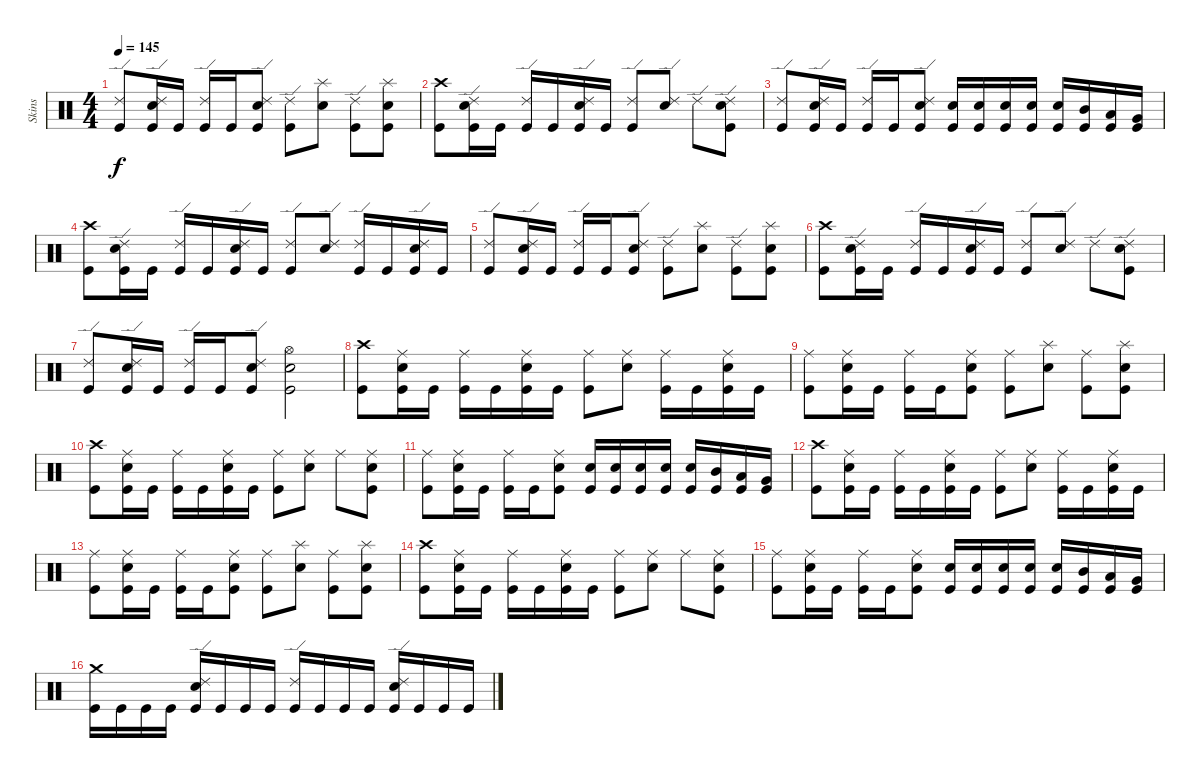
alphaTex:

\track ("Skins" "Skins") {instrument percussion}
\staff {score}
\articulation defaults
\ts (4 4)
\tempo 145
\clef neutral
\ks c
("Ride (edge) 2" "Kick (hit)").8{dy f} ("Ride (edge) 2" "Snare (hit) 2" "Kick (hit)").16 "Kick (hit)".16 ("Ride (edge) 2" "Kick (hit)").16 "Kick (hit)".16 ("Ride (edge) 2" "Snare (hit) 2" "Kick (hit)").8 ("Ride (edge) 2" "Kick (hit)").8 ("Splash (hit)" "Snare (hit) 2").8 ("Ride (edge) 2" "Kick (hit)").8 ("Splash (hit)" "Snare (hit) 2" "Kick (hit)").8 |
("Crash high (hit)" "Kick (hit)").8 ("Ride (edge) 2" "Snare (hit) 2" "Kick (hit)").16 "Kick (hit)".16 ("Ride (edge) 2" "Kick (hit)").16 "Kick (hit)".16 ("Ride (edge) 2" "Snare (hit) 2" "Kick (hit)").16 "Kick (hit)".16 ("Ride (edge) 2" "Kick (hit)").8 ("Ride (edge) 2" "Snare (hit) 2").8 "Ride (edge) 2".8 ("Ride (edge) 2" "Snare (hit) 2" "Kick (hit)").8 |
("Ride (edge) 2" "Kick (hit)").8 ("Ride (edge) 2" "Snare (hit) 2" "Kick (hit)").16 "Kick (hit)".16 ("Ride (edge) 2" "Kick (hit)").16 "Kick (hit)".16 ("Ride (edge) 2" "Snare (hit) 2" "Kick (hit)").8 ("Electric Snare (hit)" "Kick (hit)").16 ("Electric Snare (hit)" "Kick (hit)").16 ("Electric Snare (hit)" "Kick (hit)").16 ("Snare (hit) 2" "Kick (hit)").16 ("Snare (hit) 2" "Kick (hit)").16 ("Mid Tom (hit)" "Kick (hit)").16 ("Low Tom (hit)" "Kick (hit)").16 ("Very Low Tom (hit)" "Kick (hit)").16 |
("Crash high (hit)" "Kick (hit)").8 ("Ride (edge) 2" "Snare (hit) 2" "Kick (hit)").16 "Kick (hit)".16 ("Ride (edge) 2" "Kick (hit)").16 "Kick (hit)".16 ("Ride (edge) 2" "Snare (hit) 2" "Kick (hit)").16 "Kick (hit)".16 ("Ride (edge) 2" "Kick (hit)").8 ("Ride (edge) 2" "Snare (hit) 2").8 ("Ride (edge) 2" "Kick (hit)").16 "Kick (hit)".16 ("Ride (edge) 2" "Snare (hit) 2" "Kick (hit)").16 "Kick (hit)".16 |
("Ride (edge) 2" "Kick (hit)").8 ("Ride (edge) 2" "Snare (hit) 2" "Kick (hit)").16 "Kick (hit)".16 ("Ride (edge) 2" "Kick (hit)").16 "Kick (hit)".16 ("Ride (edge) 2" "Snare (hit) 2" "Kick (hit)").8 ("Ride (edge) 2" "Kick (hit)").8 ("Splash (hit)" "Snare (hit) 2").8 ("Ride (edge) 2" "Kick (hit)").8 ("Splash (hit)" "Snare (hit) 2" "Kick (hit)").8 |
("Crash high (hit)" "Kick (hit)").8 ("Ride (edge) 2" "Snare (hit) 2" "Kick (hit)").16 "Kick (hit)".16 ("Ride (edge) 2" "Kick (hit)").16 "Kick (hit)".16 ("Ride (edge) 2" "Snare (hit) 2" "Kick (hit)").16 "Kick (hit)".16 ("Ride (edge) 2" "Kick (hit)").8 ("Ride (edge) 2" "Snare (hit) 2").8 "Ride (edge) 2".8 ("Ride (edge) 2" "Snare (hit) 2" "Kick (hit)").8 |
("Ride (edge) 2" "Kick (hit)").8 ("Ride (edge) 2" "Snare (hit) 2" "Kick (hit)").16 "Kick (hit)".16 ("Ride (edge) 2" "Kick (hit)").16 "Kick (hit)".16 ("Ride (edge) 2" "Snare (hit) 2" "Kick (hit)").8 ("Hi-Hat (open)" "Electric Snare (hit)" "Kick (hit)").2 |
("Crash high (hit)" "Kick (hit)").8 ("Ride (middle)" "Electric Snare (hit)" "Kick (hit)").16 "Kick (hit)".16 ("Ride (middle)" "Kick (hit)").16 "Kick (hit)".16 ("Ride (middle)" "Electric Snare (hit)" "Kick (hit)").16 "Kick (hit)".16 ("Ride (middle)" "Kick (hit)").8 ("Ride (middle)" "Electric Snare (hit)").8 ("Ride (middle)" "Kick (hit)").16 "Kick (hit)".16 ("Ride (middle)" "Electric Snare (hit)" "Kick (hit)").16 "Kick (hit)".16 |
("Ride (middle)" "Kick (hit)").8 ("Ride (middle)" "Electric Snare (hit)" "Kick (hit)").16 "Kick (hit)".16 ("Ride (middle)" "Kick (hit)").16 "Kick (hit)".16 ("Ride (middle)" "Electric Snare (hit)" "Kick (hit)").8 ("Ride (middle)" "Kick (hit)").8 ("Splash (hit)" "Electric Snare (hit)").8 ("Ride (middle)" "Kick (hit)").8 ("Splash (hit)" "Electric Snare (hit)" "Kick (hit)").8 |
("Crash high (hit)" "Kick (hit)").8 ("Ride (middle)" "Electric Snare (hit)" "Kick (hit)").16 "Kick (hit)".16 ("Ride (middle)" "Kick (hit)").16 "Kick (hit)".16 ("Ride (middle)" "Electric Snare (hit)" "Kick (hit)").16 "Kick (hit)".16 ("Ride (middle)" "Kick (hit)").8 ("Ride (middle)" "Electric Snare (hit)").8 "Ride (middle)".8 ("Ride (middle)" "Electric Snare (hit)" "Kick (hit)").8 |
("Ride (middle)" "Kick (hit)").8 ("Ride (middle)" "Electric Snare (hit)" "Kick (hit)").16 "Kick (hit)".16 ("Ride (middle)" "Kick (hit)").16 "Kick (hit)".16 ("Ride (middle)" "Electric Snare (hit)" "Kick (hit)").8 ("Electric Snare (hit)" "Kick (hit)").16 ("Electric Snare (hit)" "Kick (hit)").16 ("Electric Snare (hit)" "Kick (hit)").16 ("Snare (hit) 2" "Kick (hit)").16 ("Snare (hit) 2" "Kick (hit)").16 ("Mid Tom (hit)" "Kick (hit)").16 ("Low Tom (hit)" "Kick (hit)").16 ("Very Low Tom (hit)" "Kick (hit)").16 |
("Crash high (hit)" "Kick (hit)").8 ("Ride (middle)" "Electric Snare (hit)" "Kick (hit)").16 "Kick (hit)".16 ("Ride (middle)" "Kick (hit)").16 "Kick (hit)".16 ("Ride (middle)" "Electric Snare (hit)" "Kick (hit)").16 "Kick (hit)".16 ("Ride (middle)" "Kick (hit)").8 ("Ride (middle)" "Electric Snare (hit)").8 ("Ride (middle)" "Kick (hit)").16 "Kick (hit)".16 ("Ride (middle)" "Electric Snare (hit)" "Kick (hit)").16 "Kick (hit)".16 |
("Ride (middle)" "Kick (hit)").8 ("Ride (middle)" "Electric Snare (hit)" "Kick (hit)").16 "Kick (hit)".16 ("Ride (middle)" "Kick (hit)").16 "Kick (hit)".16 ("Ride (middle)" "Electric Snare (hit)" "Kick (hit)").8 ("Ride (middle)" "Kick (hit)").8 ("Splash (hit)" "Electric Snare (hit)").8 ("Ride (middle)" "Kick (hit)").8 ("Splash (hit)" "Electric Snare (hit)" "Kick (hit)").8 |
("Crash high (hit)" "Kick (hit)").8 ("Ride (middle)" "Electric Snare (hit)" "Kick (hit)").16 "Kick (hit)".16 ("Ride (middle)" "Kick (hit)").16 "Kick (hit)".16 ("Ride (middle)" "Electric Snare (hit)" "Kick (hit)").16 "Kick (hit)".16 ("Ride (middle)" "Kick (hit)").8 ("Ride (middle)" "Electric Snare (hit)").8 "Ride (middle)".8 ("Ride (middle)" "Electric Snare (hit)" "Kick (hit)").8 |
("Ride (middle)" "Kick (hit)").8 ("Ride (middle)" "Electric Snare (hit)" "Kick (hit)").16 "Kick (hit)".16 ("Ride (middle)" "Kick (hit)").16 "Kick (hit)".16 ("Ride (middle)" "Electric Snare (hit)" "Kick (hit)").8 ("Electric Snare (hit)" "Kick (hit)").16 ("Electric Snare (hit)" "Kick (hit)").16 ("Electric Snare (hit)" "Kick (hit)").16 ("Snare (hit) 2" "Kick (hit)").16 ("Snare (hit) 2" "Kick (hit)").16 ("Mid Tom (hit)" "Kick (hit)").16 ("Low Tom (hit)" "Kick (hit)").16 ("Very Low Tom (hit)" "Kick (hit)").16 |
("Crash medium (hit)" "Kick (hit)").16 "Kick (hit)".16 "Kick (hit)".16 "Kick (hit)".16 ("Ride (edge) 2" "Snare (hit) 2" "Kick (hit)").16 "Kick (hit)".16 "Kick (hit)".16 "Kick (hit)".16 ("Ride (edge) 2" "Kick (hit)").16 "Kick (hit)".16 "Kick (hit)".16 "Kick (hit)".16 ("Ride (edge) 2" "Snare (hit) 2" "Kick (hit)").16 "Kick (hit)".16 "Kick (hit)".16 "Kick (hit)".16
